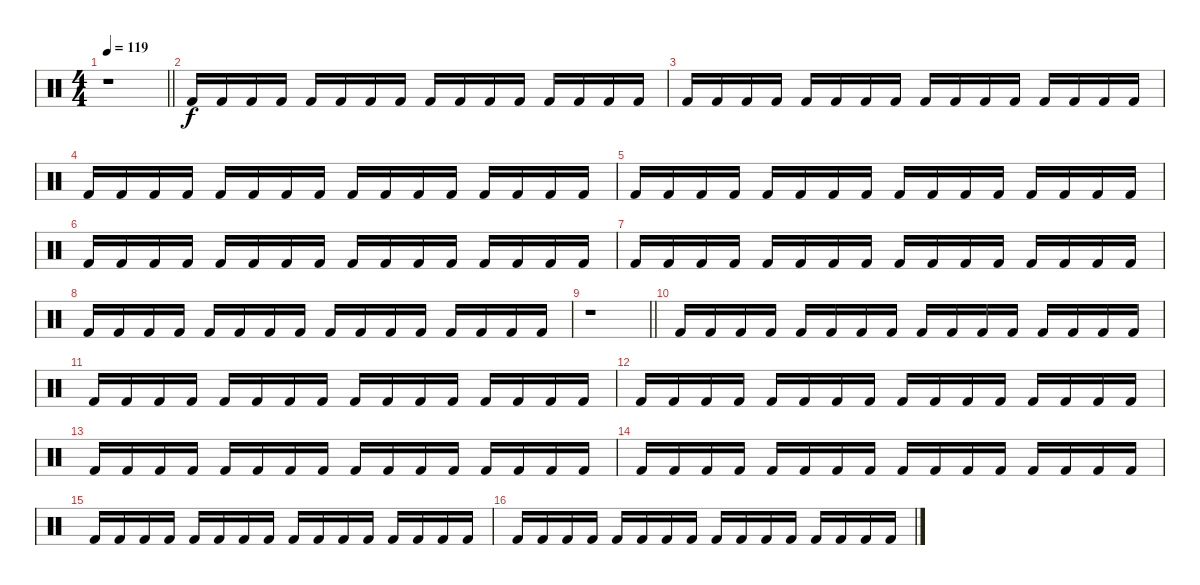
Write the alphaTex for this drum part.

\track "" {instrument percussion}
\staff {score}
\articulation defaults
\ts (4 4)
\tempo 119
\clef neutral
\barLineRight lightlight
\ks c
r.1{dy f} |
"Kick (hit) 2".16 "Kick (hit) 2".16 "Kick (hit) 2".16 "Kick (hit) 2".16 "Kick (hit) 2".16 "Kick (hit) 2".16 "Kick (hit) 2".16 "Kick (hit) 2".16 "Kick (hit) 2".16 "Kick (hit) 2".16 "Kick (hit) 2".16 "Kick (hit) 2".16 "Kick (hit) 2".16 "Kick (hit) 2".16 "Kick (hit) 2".16 "Kick (hit) 2".16 |
"Kick (hit) 2".16 "Kick (hit) 2".16 "Kick (hit) 2".16 "Kick (hit) 2".16 "Kick (hit) 2".16 "Kick (hit) 2".16 "Kick (hit) 2".16 "Kick (hit) 2".16 "Kick (hit) 2".16 "Kick (hit) 2".16 "Kick (hit) 2".16 "Kick (hit) 2".16 "Kick (hit) 2".16 "Kick (hit) 2".16 "Kick (hit) 2".16 "Kick (hit) 2".16 |
"Kick (hit) 2".16 "Kick (hit) 2".16 "Kick (hit) 2".16 "Kick (hit) 2".16 "Kick (hit) 2".16 "Kick (hit) 2".16 "Kick (hit) 2".16 "Kick (hit) 2".16 "Kick (hit) 2".16 "Kick (hit) 2".16 "Kick (hit) 2".16 "Kick (hit) 2".16 "Kick (hit) 2".16 "Kick (hit) 2".16 "Kick (hit) 2".16 "Kick (hit) 2".16 |
"Kick (hit) 2".16 "Kick (hit) 2".16 "Kick (hit) 2".16 "Kick (hit) 2".16 "Kick (hit) 2".16 "Kick (hit) 2".16 "Kick (hit) 2".16 "Kick (hit) 2".16 "Kick (hit) 2".16 "Kick (hit) 2".16 "Kick (hit) 2".16 "Kick (hit) 2".16 "Kick (hit) 2".16 "Kick (hit) 2".16 "Kick (hit) 2".16 "Kick (hit) 2".16 |
"Kick (hit) 2".16 "Kick (hit) 2".16 "Kick (hit) 2".16 "Kick (hit) 2".16 "Kick (hit) 2".16 "Kick (hit) 2".16 "Kick (hit) 2".16 "Kick (hit) 2".16 "Kick (hit) 2".16 "Kick (hit) 2".16 "Kick (hit) 2".16 "Kick (hit) 2".16 "Kick (hit) 2".16 "Kick (hit) 2".16 "Kick (hit) 2".16 "Kick (hit) 2".16 |
"Kick (hit) 2".16 "Kick (hit) 2".16 "Kick (hit) 2".16 "Kick (hit) 2".16 "Kick (hit) 2".16 "Kick (hit) 2".16 "Kick (hit) 2".16 "Kick (hit) 2".16 "Kick (hit) 2".16 "Kick (hit) 2".16 "Kick (hit) 2".16 "Kick (hit) 2".16 "Kick (hit) 2".16 "Kick (hit) 2".16 "Kick (hit) 2".16 "Kick (hit) 2".16 |
"Kick (hit) 2".16 "Kick (hit) 2".16 "Kick (hit) 2".16 "Kick (hit) 2".16 "Kick (hit) 2".16 "Kick (hit) 2".16 "Kick (hit) 2".16 "Kick (hit) 2".16 "Kick (hit) 2".16 "Kick (hit) 2".16 "Kick (hit) 2".16 "Kick (hit) 2".16 "Kick (hit) 2".16 "Kick (hit) 2".16 "Kick (hit) 2".16 "Kick (hit) 2".16 |
\barLineRight lightlight
r.1 |
"Kick (hit) 2".16 "Kick (hit) 2".16 "Kick (hit) 2".16 "Kick (hit) 2".16 "Kick (hit) 2".16 "Kick (hit) 2".16 "Kick (hit) 2".16 "Kick (hit) 2".16 "Kick (hit) 2".16 "Kick (hit) 2".16 "Kick (hit) 2".16 "Kick (hit) 2".16 "Kick (hit) 2".16 "Kick (hit) 2".16 "Kick (hit) 2".16 "Kick (hit) 2".16 |
"Kick (hit) 2".16 "Kick (hit) 2".16 "Kick (hit) 2".16 "Kick (hit) 2".16 "Kick (hit) 2".16 "Kick (hit) 2".16 "Kick (hit) 2".16 "Kick (hit) 2".16 "Kick (hit) 2".16 "Kick (hit) 2".16 "Kick (hit) 2".16 "Kick (hit) 2".16 "Kick (hit) 2".16 "Kick (hit) 2".16 "Kick (hit) 2".16 "Kick (hit) 2".16 |
"Kick (hit) 2".16 "Kick (hit) 2".16 "Kick (hit) 2".16 "Kick (hit) 2".16 "Kick (hit) 2".16 "Kick (hit) 2".16 "Kick (hit) 2".16 "Kick (hit) 2".16 "Kick (hit) 2".16 "Kick (hit) 2".16 "Kick (hit) 2".16 "Kick (hit) 2".16 "Kick (hit) 2".16 "Kick (hit) 2".16 "Kick (hit) 2".16 "Kick (hit) 2".16 |
"Kick (hit) 2".16 "Kick (hit) 2".16 "Kick (hit) 2".16 "Kick (hit) 2".16 "Kick (hit) 2".16 "Kick (hit) 2".16 "Kick (hit) 2".16 "Kick (hit) 2".16 "Kick (hit) 2".16 "Kick (hit) 2".16 "Kick (hit) 2".16 "Kick (hit) 2".16 "Kick (hit) 2".16 "Kick (hit) 2".16 "Kick (hit) 2".16 "Kick (hit) 2".16 |
"Kick (hit) 2".16 "Kick (hit) 2".16 "Kick (hit) 2".16 "Kick (hit) 2".16 "Kick (hit) 2".16 "Kick (hit) 2".16 "Kick (hit) 2".16 "Kick (hit) 2".16 "Kick (hit) 2".16 "Kick (hit) 2".16 "Kick (hit) 2".16 "Kick (hit) 2".16 "Kick (hit) 2".16 "Kick (hit) 2".16 "Kick (hit) 2".16 "Kick (hit) 2".16 |
"Kick (hit) 2".16 "Kick (hit) 2".16 "Kick (hit) 2".16 "Kick (hit) 2".16 "Kick (hit) 2".16 "Kick (hit) 2".16 "Kick (hit) 2".16 "Kick (hit) 2".16 "Kick (hit) 2".16 "Kick (hit) 2".16 "Kick (hit) 2".16 "Kick (hit) 2".16 "Kick (hit) 2".16 "Kick (hit) 2".16 "Kick (hit) 2".16 "Kick (hit) 2".16 |
"Kick (hit) 2".16 "Kick (hit) 2".16 "Kick (hit) 2".16 "Kick (hit) 2".16 "Kick (hit) 2".16 "Kick (hit) 2".16 "Kick (hit) 2".16 "Kick (hit) 2".16 "Kick (hit) 2".16 "Kick (hit) 2".16 "Kick (hit) 2".16 "Kick (hit) 2".16 "Kick (hit) 2".16 "Kick (hit) 2".16 "Kick (hit) 2".16 "Kick (hit) 2".16
